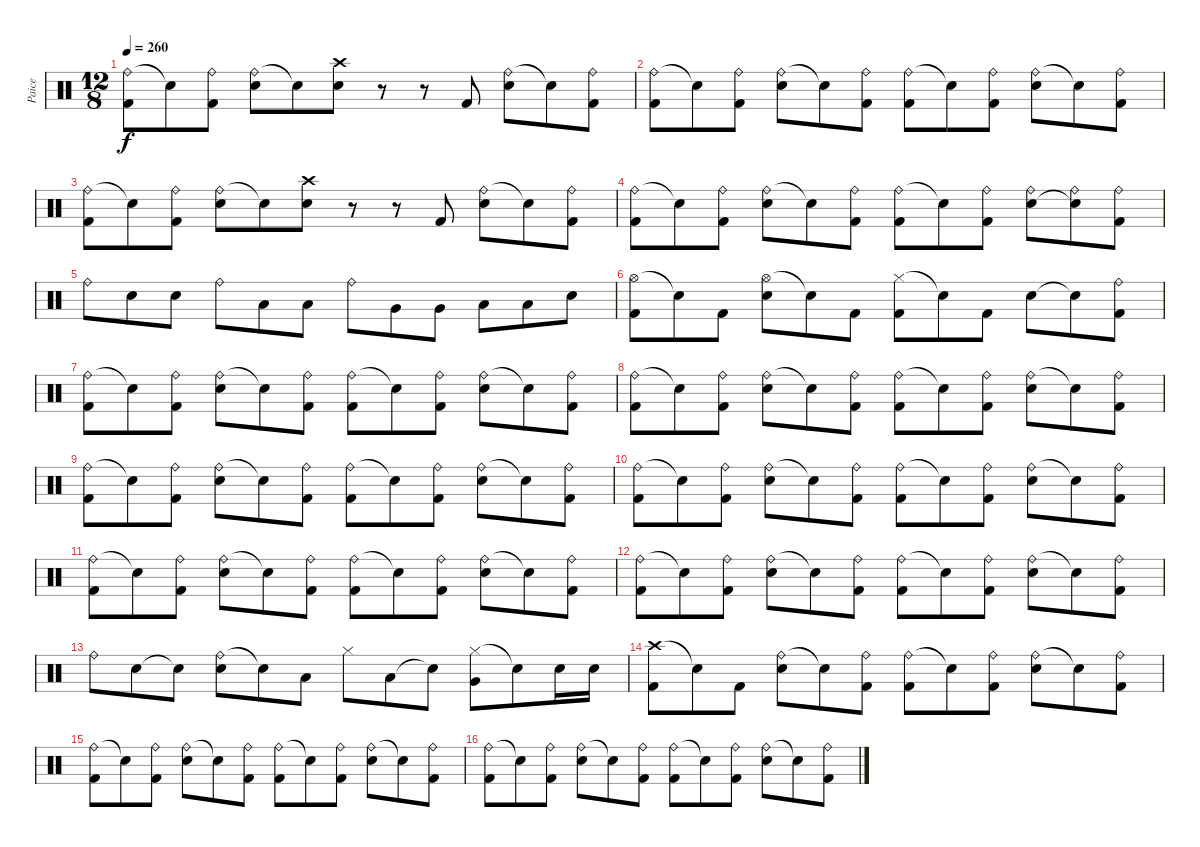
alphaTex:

\track ("Paice" "Paice") {instrument percussion}
\staff {score}
\articulation defaults
\ts (12 8)
\tempo 260
\clef neutral
\ks c
("Ride (bell)" "Kick (hit) 2").8{dy f} "Snare (hit)"{t}.8 ("Ride (bell)" "Kick (hit) 2").8 ("Ride (bell)" "Electric Snare (hit)").8 "Snare (hit)"{t}.8 ("Crash high (hit)" "Electric Snare (hit)").8 r.8 r.8 "Kick (hit) 2".8 ("Ride (bell)" "Electric Snare (hit)").8 "Snare (hit)"{t}.8 ("Ride (bell)" "Kick (hit) 2").8 |
("Ride (bell)" "Kick (hit) 2").8 "Snare (hit)"{t}.8 ("Ride (bell)" "Kick (hit) 2").8 ("Ride (bell)" "Electric Snare (hit)").8 "Snare (hit)"{t}.8 ("Ride (bell)" "Kick (hit) 2").8 ("Ride (bell)" "Kick (hit) 2").8 "Snare (hit)"{t}.8 ("Ride (bell)" "Kick (hit) 2").8 ("Ride (bell)" "Electric Snare (hit)").8 "Snare (hit)"{t}.8 ("Ride (bell)" "Kick (hit) 2").8 |
("Ride (bell)" "Kick (hit) 2").8 "Snare (hit)"{t}.8 ("Ride (bell)" "Kick (hit) 2").8 ("Ride (bell)" "Electric Snare (hit)").8 "Snare (hit)"{t}.8 ("Crash high (hit)" "Electric Snare (hit)").8 r.8 r.8 "Kick (hit) 2".8 ("Ride (bell)" "Electric Snare (hit)").8 "Snare (hit)"{t}.8 ("Ride (bell)" "Kick (hit) 2").8 |
("Ride (bell)" "Kick (hit) 2").8 "Snare (hit)"{t}.8 ("Ride (bell)" "Kick (hit) 2").8 ("Ride (bell)" "Electric Snare (hit)").8 "Snare (hit)"{t}.8 ("Ride (bell)" "Kick (hit) 2").8 ("Ride (bell)" "Kick (hit) 2").8 "Snare (hit)"{t}.8 ("Ride (bell)" "Kick (hit) 2").8 ("Ride (bell)" "Electric Snare (hit)").8 ("Ride (bell)" "Snare (hit)"{t}).8 ("Ride (bell)" "Kick (hit) 2").8 |
"Ride (bell)".8 "Electric Snare (hit)".8 "Electric Snare (hit)".8 "Ride (bell)".8 "Low Tom (hit)".8 "Low Tom (hit)".8 "Ride (bell)".8 "Very Low Tom (hit)".8 "Very Low Tom (hit)".8 "Low Floor Tom (hit)".8 "Low Floor Tom (hit)".8 "Electric Snare (hit)".8 |
("Hi-Hat (open)" "Kick (hit) 2").8 "Snare (hit)"{t}.8 "Kick (hit) 2".8 ("Hi-Hat (open)" "Electric Snare (hit)").8 "Snare (hit)"{t}.8 "Kick (hit) 2".8 ("Hi-Hat (closed)" "Kick (hit) 2").8 "Snare (hit)"{t}.8 "Kick (hit) 2".8 "Electric Snare (hit)".8 "Snare (hit)"{t}.8 ("Ride (bell)" "Kick (hit) 2").8 |
("Ride (bell)" "Kick (hit) 2").8 "Snare (hit)"{t}.8 ("Ride (bell)" "Kick (hit) 2").8 ("Ride (bell)" "Electric Snare (hit)").8 "Snare (hit)"{t}.8 ("Ride (bell)" "Kick (hit) 2").8 ("Ride (bell)" "Kick (hit) 2").8 "Snare (hit)"{t}.8 ("Ride (bell)" "Kick (hit) 2").8 ("Ride (bell)" "Electric Snare (hit)").8 "Snare (hit)"{t}.8 ("Ride (bell)" "Kick (hit) 2").8 |
("Ride (bell)" "Kick (hit) 2").8 "Snare (hit)"{t}.8 ("Ride (bell)" "Kick (hit) 2").8 ("Ride (bell)" "Electric Snare (hit)").8 "Snare (hit)"{t}.8 ("Ride (bell)" "Kick (hit) 2").8 ("Ride (bell)" "Kick (hit) 2").8 "Snare (hit)"{t}.8 ("Ride (bell)" "Kick (hit) 2").8 ("Ride (bell)" "Electric Snare (hit)").8 "Snare (hit)"{t}.8 ("Ride (bell)" "Kick (hit) 2").8 |
("Ride (bell)" "Kick (hit) 2").8 "Snare (hit)"{t}.8 ("Ride (bell)" "Kick (hit) 2").8 ("Ride (bell)" "Electric Snare (hit)").8 "Snare (hit)"{t}.8 ("Ride (bell)" "Kick (hit) 2").8 ("Ride (bell)" "Kick (hit) 2").8 "Snare (hit)"{t}.8 ("Ride (bell)" "Kick (hit) 2").8 ("Ride (bell)" "Electric Snare (hit)").8 "Snare (hit)"{t}.8 ("Ride (bell)" "Kick (hit) 2").8 |
("Ride (bell)" "Kick (hit) 2").8 "Snare (hit)"{t}.8 ("Ride (bell)" "Kick (hit) 2").8 ("Ride (bell)" "Electric Snare (hit)").8 "Snare (hit)"{t}.8 ("Ride (bell)" "Kick (hit) 2").8 ("Ride (bell)" "Kick (hit) 2").8 "Snare (hit)"{t}.8 ("Ride (bell)" "Kick (hit) 2").8 ("Ride (bell)" "Electric Snare (hit)").8 "Snare (hit)"{t}.8 ("Ride (bell)" "Kick (hit) 2").8 |
("Ride (bell)" "Kick (hit) 2").8 "Snare (hit)"{t}.8 ("Ride (bell)" "Kick (hit) 2").8 ("Ride (bell)" "Electric Snare (hit)").8 "Snare (hit)"{t}.8 ("Ride (bell)" "Kick (hit) 2").8 ("Ride (bell)" "Kick (hit) 2").8 "Snare (hit)"{t}.8 ("Ride (bell)" "Kick (hit) 2").8 ("Ride (bell)" "Electric Snare (hit)").8 "Snare (hit)"{t}.8 ("Ride (bell)" "Kick (hit) 2").8 |
("Ride (bell)" "Kick (hit) 2").8 "Snare (hit)"{t}.8 ("Ride (bell)" "Kick (hit) 2").8 ("Ride (bell)" "Electric Snare (hit)").8 "Snare (hit)"{t}.8 ("Ride (bell)" "Kick (hit) 2").8 ("Ride (bell)" "Kick (hit) 2").8 "Snare (hit)"{t}.8 ("Ride (bell)" "Kick (hit) 2").8 ("Ride (bell)" "Electric Snare (hit)").8 "Snare (hit)"{t}.8 ("Ride (bell)" "Kick (hit) 2").8 |
"Ride (bell)".8 "Electric Snare (hit)".8 "Snare (hit)"{t}.8 ("Ride (bell)" "Electric Snare (hit)").8 "Snare (hit)"{t}.8 "Low Tom (hit)".8 "Hi-Hat (closed)".8 "Low Tom (hit)".8 "Snare (hit)"{t}.8 ("Hi-Hat (closed)" "Very Low Tom (hit)").8 "Snare (hit)"{t}.8 "Electric Snare (hit)".16 "Electric Snare (hit)".16 |
("Crash high (hit)" "Kick (hit) 2").8 "Snare (hit)"{t}.8 "Kick (hit) 2".8 ("Ride (bell)" "Electric Snare (hit)").8 "Snare (hit)"{t}.8 ("Ride (bell)" "Kick (hit) 2").8 ("Ride (bell)" "Kick (hit) 2").8 "Snare (hit)"{t}.8 ("Ride (bell)" "Kick (hit) 2").8 ("Ride (bell)" "Electric Snare (hit)").8 "Snare (hit)"{t}.8 ("Ride (bell)" "Kick (hit) 2").8 |
("Ride (bell)" "Kick (hit) 2").8 "Snare (hit)"{t}.8 ("Ride (bell)" "Kick (hit) 2").8 ("Ride (bell)" "Electric Snare (hit)").8 "Snare (hit)"{t}.8 ("Ride (bell)" "Kick (hit) 2").8 ("Ride (bell)" "Kick (hit) 2").8 "Snare (hit)"{t}.8 ("Ride (bell)" "Kick (hit) 2").8 ("Ride (bell)" "Electric Snare (hit)").8 "Snare (hit)"{t}.8 ("Ride (bell)" "Kick (hit) 2").8 |
("Ride (bell)" "Kick (hit) 2").8 "Snare (hit)"{t}.8 ("Ride (bell)" "Kick (hit) 2").8 ("Ride (bell)" "Electric Snare (hit)").8 "Snare (hit)"{t}.8 ("Ride (bell)" "Kick (hit) 2").8 ("Ride (bell)" "Kick (hit) 2").8 "Snare (hit)"{t}.8 ("Ride (bell)" "Kick (hit) 2").8 ("Ride (bell)" "Electric Snare (hit)").8 "Snare (hit)"{t}.8 ("Ride (bell)" "Kick (hit) 2").8
